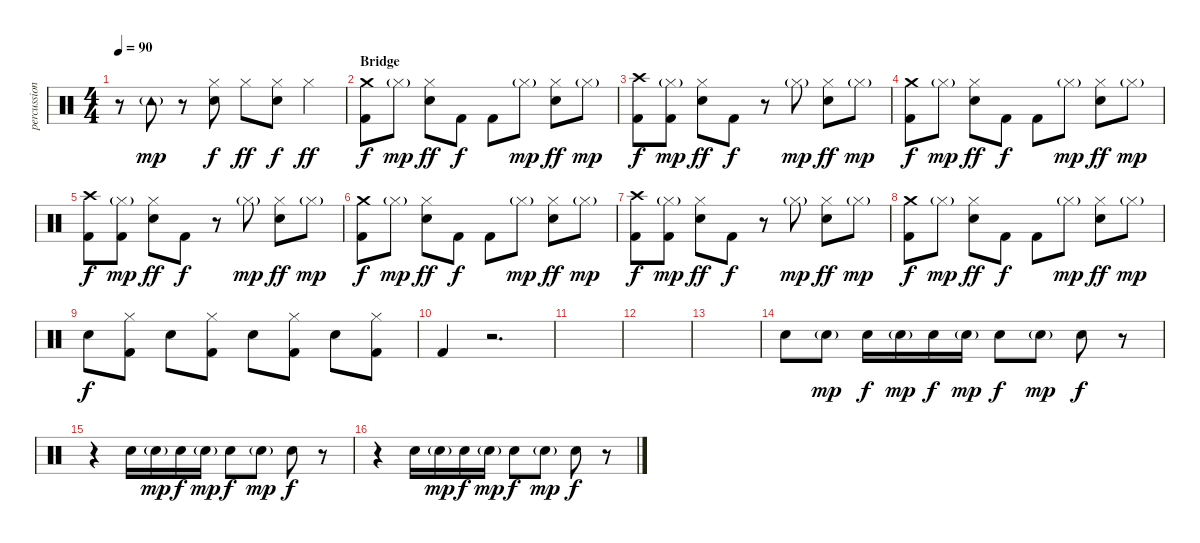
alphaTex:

\track ("percussion" "percussion") {instrument percussion}
\staff {score}
\articulation defaults
\ts (4 4)
\tempo 90
\clef neutral
\ks c
r.8{dy mp} "Tambourine (hit)"{g}.8 r.8 ("Hi-Hat (closed)" "Electric Snare (hit)").8{dy f} "Hi-Hat (closed)".8{dy ff} ("Hi-Hat (closed)" "Electric Snare (hit)").8{dy f} "Hi-Hat (closed)".4{dy ff} |
\section ("" "Bridge")
("Crash medium (hit)" "Kick (hit) 2").8{dy f} "Hi-Hat (closed)"{g}.8{dy mp} ("Hi-Hat (closed)" "Electric Snare (hit)").8{dy ff} "Kick (hit) 2".8{dy f} "Kick (hit) 2".8 "Hi-Hat (closed)"{g}.8{dy mp} ("Hi-Hat (closed)" "Electric Snare (hit)").8{dy ff} "Hi-Hat (closed)"{g}.8{dy mp} |
("Crash high (hit)" "Kick (hit) 2").8{dy f} ("Hi-Hat (closed)"{g} "Kick (hit) 2").8{dy mp} ("Hi-Hat (closed)" "Electric Snare (hit)").8{dy ff} "Kick (hit) 2".8{dy f} r.8 "Hi-Hat (closed)"{g}.8{dy mp} ("Hi-Hat (closed)" "Electric Snare (hit)").8{dy ff} "Hi-Hat (closed)"{g}.8{dy mp} |
("Crash medium (hit)" "Kick (hit) 2").8{dy f} "Hi-Hat (closed)"{g}.8{dy mp} ("Hi-Hat (closed)" "Electric Snare (hit)").8{dy ff} "Kick (hit) 2".8{dy f} "Kick (hit) 2".8 "Hi-Hat (closed)"{g}.8{dy mp} ("Hi-Hat (closed)" "Electric Snare (hit)").8{dy ff} "Hi-Hat (closed)"{g}.8{dy mp} |
("Crash high (hit)" "Kick (hit) 2").8{dy f} ("Hi-Hat (closed)"{g} "Kick (hit) 2").8{dy mp} ("Hi-Hat (closed)" "Electric Snare (hit)").8{dy ff} "Kick (hit) 2".8{dy f} r.8 "Hi-Hat (closed)"{g}.8{dy mp} ("Hi-Hat (closed)" "Electric Snare (hit)").8{dy ff} "Hi-Hat (closed)"{g}.8{dy mp} |
("Crash medium (hit)" "Kick (hit) 2").8{dy f} "Hi-Hat (closed)"{g}.8{dy mp} ("Hi-Hat (closed)" "Electric Snare (hit)").8{dy ff} "Kick (hit) 2".8{dy f} "Kick (hit) 2".8 "Hi-Hat (closed)"{g}.8{dy mp} ("Hi-Hat (closed)" "Electric Snare (hit)").8{dy ff} "Hi-Hat (closed)"{g}.8{dy mp} |
("Crash high (hit)" "Kick (hit) 2").8{dy f} ("Hi-Hat (closed)"{g} "Kick (hit) 2").8{dy mp} ("Hi-Hat (closed)" "Electric Snare (hit)").8{dy ff} "Kick (hit) 2".8{dy f} r.8 "Hi-Hat (closed)"{g}.8{dy mp} ("Hi-Hat (closed)" "Electric Snare (hit)").8{dy ff} "Hi-Hat (closed)"{g}.8{dy mp} |
("Crash medium (hit)" "Kick (hit) 2").8{dy f} "Hi-Hat (closed)"{g}.8{dy mp} ("Hi-Hat (closed)" "Electric Snare (hit)").8{dy ff} "Kick (hit) 2".8{dy f} "Kick (hit) 2".8 "Hi-Hat (closed)"{g}.8{dy mp} ("Hi-Hat (closed)" "Electric Snare (hit)").8{dy ff} "Hi-Hat (closed)"{g}.8{dy mp} |
"Electric Snare (hit)".8{dy f} ("Hi-Hat (closed)" "Kick (hit) 2").8 "Electric Snare (hit)".8 ("Hi-Hat (closed)" "Kick (hit) 2").8 "Electric Snare (hit)".8 ("Hi-Hat (closed)" "Kick (hit) 2").8 "Electric Snare (hit)".8 ("Hi-Hat (closed)" "Kick (hit) 2").8 |
"Kick (hit) 2".4 r.2{d} |
|
|
|
"Electric Snare (hit)".8{volume 10} "Electric Snare (hit)"{g}.8{dy mp} "Electric Snare (hit)".16{dy f} "Electric Snare (hit)"{g}.16{dy mp} "Electric Snare (hit)".16{dy f} "Electric Snare (hit)"{g}.16{dy mp} "Electric Snare (hit)".8{dy f} "Electric Snare (hit)"{g}.8{dy mp} "Electric Snare (hit)".8{dy f} r.8 |
r.4 "Electric Snare (hit)".16 "Electric Snare (hit)"{g}.16{dy mp} "Electric Snare (hit)".16{dy f} "Electric Snare (hit)"{g}.16{dy mp} "Electric Snare (hit)".8{dy f} "Electric Snare (hit)"{g}.8{dy mp} "Electric Snare (hit)".8{dy f} r.8 |
r.4 "Electric Snare (hit)".16 "Electric Snare (hit)"{g}.16{dy mp} "Electric Snare (hit)".16{dy f} "Electric Snare (hit)"{g}.16{dy mp} "Electric Snare (hit)".8{dy f} "Electric Snare (hit)"{g}.8{dy mp} "Electric Snare (hit)".8{dy f} r.8
